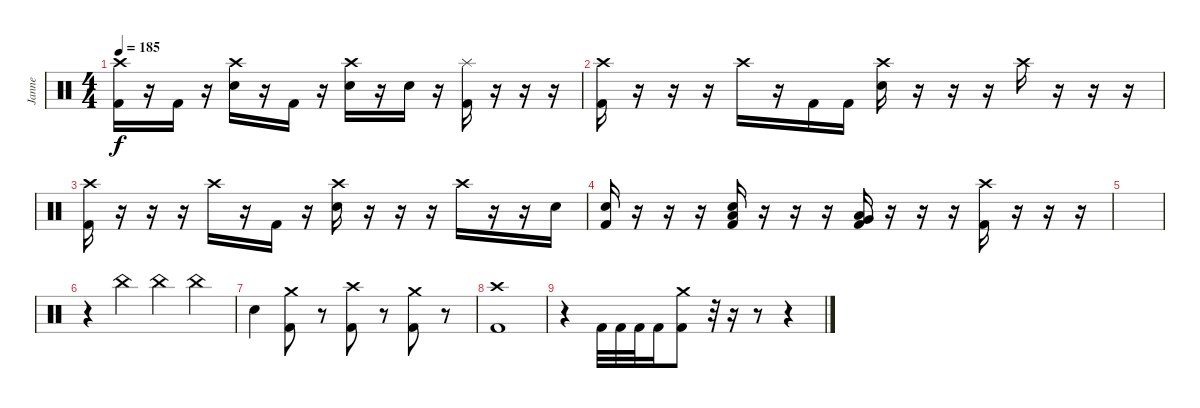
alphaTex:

\track ("Janne" "Janne") {instrument percussion}
\staff {score}
\articulation defaults
\ts (4 4)
\tempo 185
\clef neutral
\ks c
("Crash high (hit)" "Kick (hit) 2").16{dy f} r.16 "Kick (hit) 2".16 r.16 ("Crash high (hit)" "Electric Snare (hit)").16 r.16 "Kick (hit) 2".16 r.16 ("Crash high (hit)" "Electric Snare (hit)").16 r.16 "Electric Snare (hit)".16 r.16 ("Splash (hit)" "Kick (hit) 2").16 r.16 r.16 r.16 |
("Crash high (hit)" "Kick (hit) 2").16 r.16 r.16 r.16 "Crash high (hit)".16 r.16 "Kick (hit) 2".16 "Kick (hit) 2".16 ("Crash high (hit)" "Electric Snare (hit)").16 r.16 r.16 r.16 "Crash high (hit)".16 r.16 r.16 r.16 |
("Crash high (hit)" "Kick (hit) 2").16 r.16 r.16 r.16 "Crash high (hit)".16 r.16 "Kick (hit) 2".16 r.16 ("Crash high (hit)" "Electric Snare (hit)").16 r.16 r.16 r.16 "Crash high (hit)".16 r.16 r.16 "Electric Snare (hit)".16 |
("Electric Snare (hit)" "Kick (hit) 2").16 r.16 r.16 r.16 ("Low Tom (hit)" "Electric Snare (hit)" "Kick (hit) 2").16 r.16 r.16 r.16 ("Low Tom (hit)" "Very Low Tom (hit)" "Kick (hit) 2").16 r.16 r.16 r.16 ("Crash high (hit)" "Kick (hit) 2").16 r.16 r.16 r.16 |
|
r.4 "China (hit)".4 "China (hit)".4 "China (hit)".4 |
"Electric Snare (hit)".4 ("Crash medium (hit)" "Kick (hit) 2").8 r.8 ("Crash high (hit)" "Kick (hit) 2").8 r.8 ("Crash medium (hit)" "Kick (hit) 2").8 r.8 |
("Crash high (hit)" "Kick (hit) 2").1 |
r.4 "Kick (hit) 2".32 "Kick (hit) 2".32 "Kick (hit) 2".32 "Kick (hit) 2".16 ("Crash medium (hit)" "Kick (hit) 2").8 r.32 r.16 r.8 r.4
